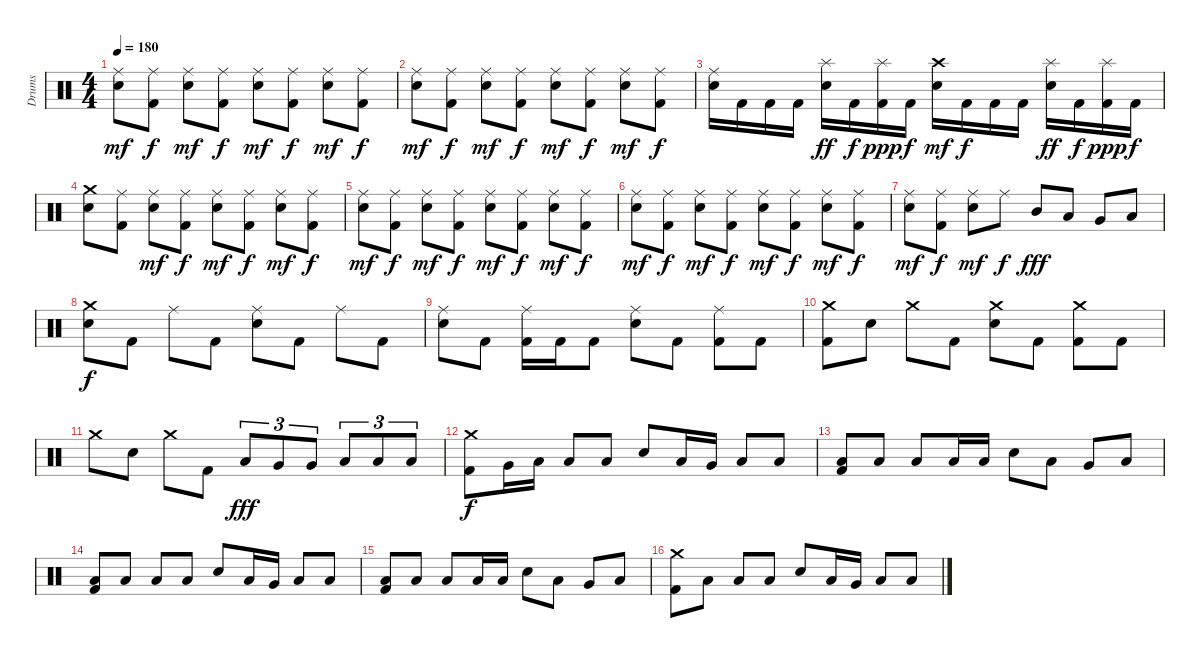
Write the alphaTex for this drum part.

\track ("Drums" "Drums") {instrument percussion}
\staff {score}
\articulation defaults
\ts (4 4)
\tempo 180
\clef neutral
\ks c
("Ride (middle)" "Snare (hit) 2").8{dy mf} ("Kick (hit) 2" "Ride (middle)").8{dy f} ("Ride (middle)" "Snare (hit) 2").8{dy mf} ("Kick (hit) 2" "Ride (middle)").8{dy f} ("Ride (middle)" "Snare (hit) 2").8{dy mf} ("Kick (hit) 2" "Ride (middle)").8{dy f} ("Ride (middle)" "Snare (hit) 2").8{dy mf} ("Kick (hit) 2" "Ride (middle)").8{dy f} |
("Ride (middle)" "Snare (hit) 2").8{dy mf} ("Kick (hit) 2" "Ride (middle)").8{dy f} ("Ride (middle)" "Snare (hit) 2").8{dy mf} ("Kick (hit) 2" "Ride (middle)").8{dy f} ("Ride (middle)" "Snare (hit) 2").8{dy mf} ("Kick (hit) 2" "Ride (middle)").8{dy f} ("Ride (middle)" "Snare (hit) 2").8{dy mf} ("Kick (hit) 2" "Ride (middle)").8{dy f} |
("Ride (middle)" "Snare (hit) 2").16 "Kick (hit) 2".16 "Kick (hit) 2".16 "Kick (hit) 2".16 ("Splash (hit)" "Snare (hit) 2").16{dy ff} "Kick (hit) 2".16{dy f} ("Kick (hit) 2" "Splash (hit)").16{dy ppp} "Kick (hit) 2".16{dy f} ("Crash high (hit)" "Snare (hit) 2").16{dy mf} "Kick (hit) 2".16{dy f} "Kick (hit) 2".16 "Kick (hit) 2".16 ("Splash (hit)" "Snare (hit) 2").16{dy ff} "Kick (hit) 2".16{dy f} ("Kick (hit) 2" "Splash (hit)").16{dy ppp} "Kick (hit) 2".16{dy f} |
("Crash medium (hit)" "Snare (hit) 2").8 ("Kick (hit) 2" "Ride (middle)").8 ("Ride (middle)" "Snare (hit) 2").8{dy mf} ("Kick (hit) 2" "Ride (middle)").8{dy f} ("Ride (middle)" "Snare (hit) 2").8{dy mf} ("Kick (hit) 2" "Ride (middle)").8{dy f} ("Ride (middle)" "Snare (hit) 2").8{dy mf} ("Kick (hit) 2" "Ride (middle)").8{dy f} |
("Ride (middle)" "Snare (hit) 2").8{dy mf} ("Kick (hit) 2" "Ride (middle)").8{dy f} ("Ride (middle)" "Snare (hit) 2").8{dy mf} ("Kick (hit) 2" "Ride (middle)").8{dy f} ("Ride (middle)" "Snare (hit) 2").8{dy mf} ("Kick (hit) 2" "Ride (middle)").8{dy f} ("Ride (middle)" "Snare (hit) 2").8{dy mf} ("Kick (hit) 2" "Ride (middle)").8{dy f} |
("Ride (middle)" "Snare (hit) 2").8{dy mf} ("Kick (hit) 2" "Ride (middle)").8{dy f} ("Ride (middle)" "Snare (hit) 2").8{dy mf} ("Kick (hit) 2" "Ride (middle)").8{dy f} ("Ride (middle)" "Snare (hit) 2").8{dy mf} ("Kick (hit) 2" "Ride (middle)").8{dy f} ("Ride (middle)" "Snare (hit) 2").8{dy mf} ("Kick (hit) 2" "Ride (middle)").8{dy f} |
("Ride (middle)" "Snare (hit) 2").8{dy mf} ("Kick (hit) 2" "Ride (middle)").8{dy f} ("Ride (middle)" "Snare (hit) 2").8{dy mf} "Ride (middle)".8{dy f} "Mid Tom (hit)".8{dy fff} "Low Tom (hit)".8 "Very Low Tom (hit)".8 "Low Floor Tom (hit)".8 |
("Crash medium (hit)" "Snare (hit) 2").8{dy f} "Kick (hit) 2".8 "Ride (middle)".8 "Kick (hit) 2".8 ("Ride (middle)" "Snare (hit) 2").8 "Kick (hit) 2".8 "Ride (middle)".8 "Kick (hit) 2".8 |
("Ride (middle)" "Snare (hit) 2").8 "Kick (hit) 2".8 ("Kick (hit) 2" "Ride (middle)").16 "Kick (hit) 2".16 "Kick (hit) 2".8 ("Ride (middle)" "Snare (hit) 2").8 "Kick (hit) 2".8 ("Kick (hit) 2" "Ride (middle)").8 "Kick (hit) 2".8 |
("Kick (hit) 2" "Crash medium (hit)").8 "Snare (hit) 2".8 "Crash medium (hit)".8 "Kick (hit) 2".8 ("Crash medium (hit)" "Snare (hit) 2").8 "Kick (hit) 2".8 ("Kick (hit) 2" "Crash medium (hit)").8 "Kick (hit) 2".8 |
"Crash medium (hit)".8 "Snare (hit) 2".8 "Crash medium (hit)".8 "Kick (hit) 2".8 "Low Tom (hit)".8{tu (3 2) dy fff} "Very Low Tom (hit)".8{tu (3 2)} "Very Low Tom (hit)".8{tu (3 2)} "Low Floor Tom (hit)".8{tu (3 2)} "Low Floor Tom (hit)".8{tu (3 2)} "Low Floor Tom (hit)".8{tu (3 2)} |
("Kick (hit) 2" "Crash medium (hit)").8{dy f} "Very Low Tom (hit)".16 "Low Floor Tom (hit)".16 "Low Floor Tom (hit)".8 "Low Floor Tom (hit)".8 "Snare (hit) 2".8 "Low Tom (hit)".16 "Very Low Tom (hit)".16 "Low Floor Tom (hit)".8 "Low Floor Tom (hit)".8 |
("Kick (hit) 2" "Low Floor Tom (hit)").8 "Low Floor Tom (hit)".8 "Low Floor Tom (hit)".8 "Low Floor Tom (hit)".16 "Low Floor Tom (hit)".16 "Snare (hit) 2".8 "Low Tom (hit)".8 "Very Low Tom (hit)".8 "Low Floor Tom (hit)".8 |
("Kick (hit) 2" "Low Floor Tom (hit)").8 "Low Floor Tom (hit)".8 "Low Floor Tom (hit)".8 "Low Floor Tom (hit)".8 "Snare (hit) 2".8 "Low Tom (hit)".16 "Very Low Tom (hit)".16 "Low Floor Tom (hit)".8 "Low Floor Tom (hit)".8 |
("Kick (hit) 2" "Low Floor Tom (hit)").8 "Low Floor Tom (hit)".8 "Low Floor Tom (hit)".8 "Low Floor Tom (hit)".16 "Low Floor Tom (hit)".16 "Snare (hit) 2".8 "Low Tom (hit)".8 "Very Low Tom (hit)".8 "Low Floor Tom (hit)".8 |
("Kick (hit) 2" "Crash medium (hit)").8 "Low Floor Tom (hit)".8 "Low Floor Tom (hit)".8 "Low Floor Tom (hit)".8 "Snare (hit) 2".8 "Low Tom (hit)".16 "Very Low Tom (hit)".16 "Low Floor Tom (hit)".8 "Low Floor Tom (hit)".8
